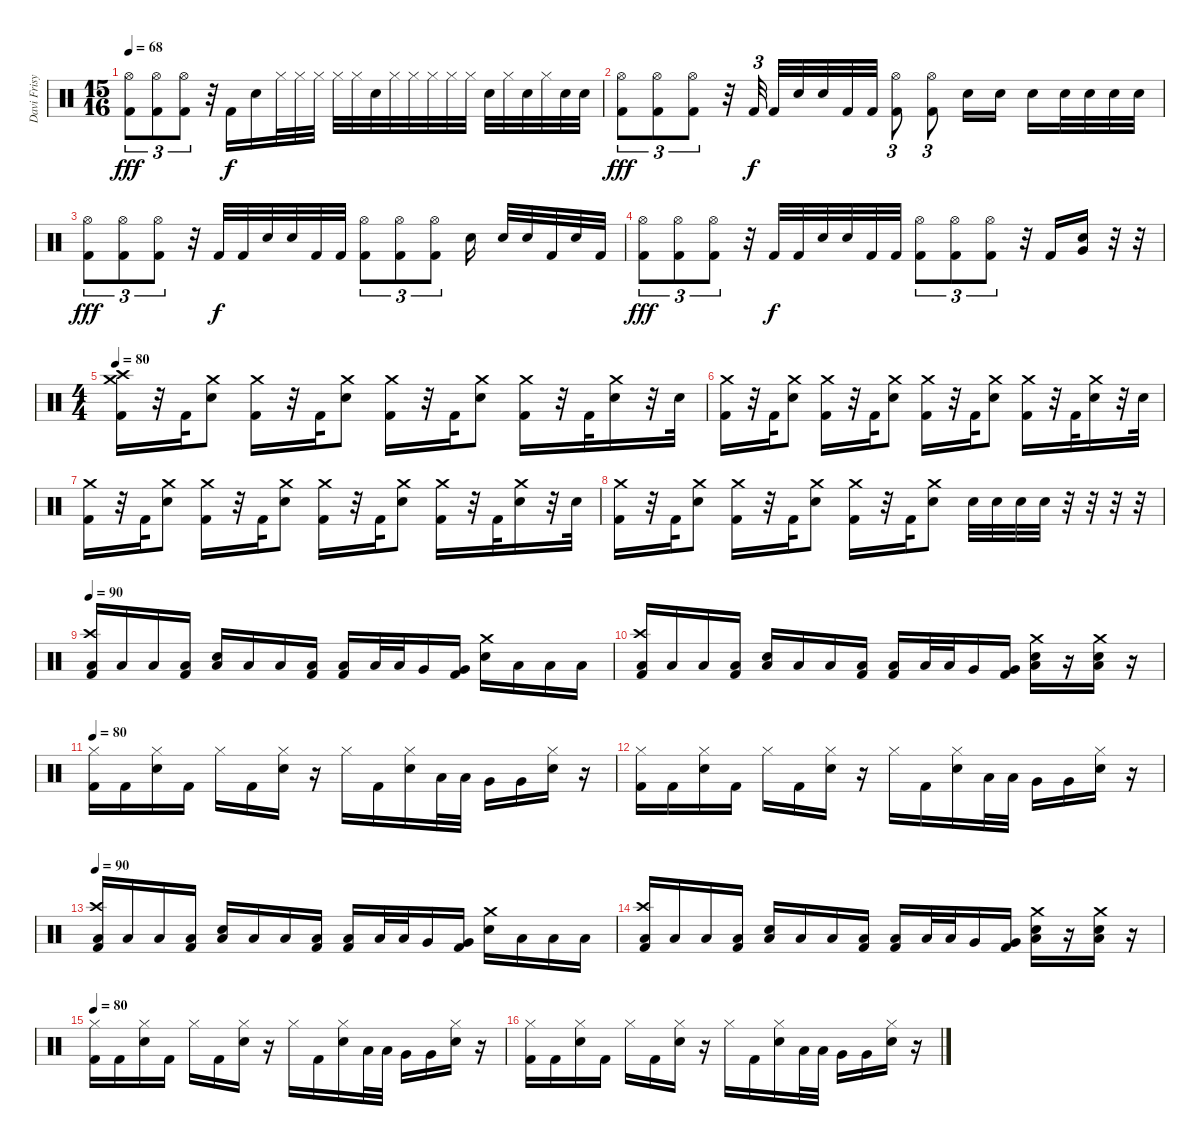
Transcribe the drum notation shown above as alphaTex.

\track ("Davi Frisya" "Davi Frisy") {instrument percussion}
\staff {score}
\articulation defaults
\ts (15 16)
\tempo 68
\clef neutral
\ks c
("Hi-Hat (open)" "Kick (hit) 2").8{tu (3 2) dy fff} ("Hi-Hat (open)" "Kick (hit) 2").8{tu (3 2)} ("Hi-Hat (open)" "Kick (hit) 2").8{tu (3 2)} r.32 "Kick (hit) 2".16{dy f} "Electric Snare (hit)".16 "Hi-Hat (closed)".32 "Hi-Hat (closed)".32 "Hi-Hat (closed)".32 "Hi-Hat (closed)".32 "Hi-Hat (closed)".32 "Electric Snare (hit)".32 "Hi-Hat (closed)".32 "Hi-Hat (closed)".32 "Hi-Hat (closed)".32 "Hi-Hat (closed)".32 "Hi-Hat (closed)".32 "Electric Snare (hit)".32 "Hi-Hat (closed)".32 "Electric Snare (hit)".32 "Hi-Hat (closed)".32 "Electric Snare (hit)".32 "Electric Snare (hit)".32 |
("Hi-Hat (open)" "Kick (hit) 2").8{tu (3 2) dy fff} ("Hi-Hat (open)" "Kick (hit) 2").8{tu (3 2)} ("Hi-Hat (open)" "Kick (hit) 2").8{tu (3 2)} r.32 "Kick (hit) 2".32{tu (3 2) dy f beam splitsecondary} "Kick (hit) 2".32 "Electric Snare (hit)".32 "Electric Snare (hit)".32 "Kick (hit) 2".32 "Kick (hit) 2".32 ("Hi-Hat (open)" "Kick (hit) 2").8{tu (3 2)} ("Hi-Hat (open)" "Kick (hit) 2").8{tu (3 2)} "Electric Snare (hit)".16 "Electric Snare (hit)".16 "Electric Snare (hit)".16 "Electric Snare (hit)".32 "Electric Snare (hit)".32 "Electric Snare (hit)".32 "Electric Snare (hit)".32 |
("Hi-Hat (open)" "Kick (hit) 2").8{tu (3 2) dy fff} ("Hi-Hat (open)" "Kick (hit) 2").8{tu (3 2)} ("Hi-Hat (open)" "Kick (hit) 2").8{tu (3 2)} r.32 "Kick (hit) 2".32{dy f} "Kick (hit) 2".32 "Electric Snare (hit)".32 "Electric Snare (hit)".32 "Kick (hit) 2".32 "Kick (hit) 2".32 ("Hi-Hat (open)" "Kick (hit) 2").8{tu (3 2)} ("Hi-Hat (open)" "Kick (hit) 2").8{tu (3 2)} ("Hi-Hat (open)" "Kick (hit) 2").8{tu (3 2)} "Electric Snare (hit)".16 "Electric Snare (hit)".32 "Electric Snare (hit)".32 "Kick (hit) 2".32 "Electric Snare (hit)".32 "Kick (hit) 2".32 |
("Hi-Hat (open)" "Kick (hit) 2").8{tu (3 2) dy fff} ("Hi-Hat (open)" "Kick (hit) 2").8{tu (3 2)} ("Hi-Hat (open)" "Kick (hit) 2").8{tu (3 2)} r.32 "Kick (hit) 2".32{dy f} "Kick (hit) 2".32 "Electric Snare (hit)".32 "Electric Snare (hit)".32 "Kick (hit) 2".32 "Kick (hit) 2".32 ("Hi-Hat (open)" "Kick (hit) 2").8{tu (3 2)} ("Hi-Hat (open)" "Kick (hit) 2").8{tu (3 2)} ("Hi-Hat (open)" "Kick (hit) 2").8{tu (3 2)} r.32 "Kick (hit) 2".16 ("Electric Snare (hit)" "Very Low Tom (hit)").16 r.32 r.32 |
\ts (4 4)
\tempo 80
("Crash medium (hit)" "Crash high (hit)" "Kick (hit) 2").16 r.32 "Kick (hit) 2".32 ("Crash medium (hit)" "Electric Snare (hit)").8 ("Crash medium (hit)" "Kick (hit) 2").16 r.32 "Kick (hit) 2".32 ("Crash medium (hit)" "Electric Snare (hit)").8 ("Crash medium (hit)" "Kick (hit) 2").16 r.32 "Kick (hit) 2".32 ("Crash medium (hit)" "Electric Snare (hit)").8 ("Crash medium (hit)" "Kick (hit) 2").16 r.32 "Kick (hit) 2".32 ("Crash medium (hit)" "Electric Snare (hit)").16 r.32 "Electric Snare (hit)".32 |
("Crash medium (hit)" "Kick (hit) 2").16 r.32 "Kick (hit) 2".32 ("Crash medium (hit)" "Electric Snare (hit)").8 ("Crash medium (hit)" "Kick (hit) 2").16 r.32 "Kick (hit) 2".32 ("Crash medium (hit)" "Electric Snare (hit)").8 ("Crash medium (hit)" "Kick (hit) 2").16 r.32 "Kick (hit) 2".32 ("Crash medium (hit)" "Electric Snare (hit)").8 ("Crash medium (hit)" "Kick (hit) 2").16 r.32 "Kick (hit) 2".32 ("Crash medium (hit)" "Electric Snare (hit)").16 r.32 "Electric Snare (hit)".32 |
("Crash medium (hit)" "Kick (hit) 2").16 r.32 "Kick (hit) 2".32 ("Crash medium (hit)" "Electric Snare (hit)").8 ("Crash medium (hit)" "Kick (hit) 2").16 r.32 "Kick (hit) 2".32 ("Crash medium (hit)" "Electric Snare (hit)").8 ("Crash medium (hit)" "Kick (hit) 2").16 r.32 "Kick (hit) 2".32 ("Crash medium (hit)" "Electric Snare (hit)").8 ("Crash medium (hit)" "Kick (hit) 2").16 r.32 "Kick (hit) 2".32 ("Crash medium (hit)" "Electric Snare (hit)").16 r.32 "Electric Snare (hit)".32 |
("Crash medium (hit)" "Kick (hit) 2").16 r.32 "Kick (hit) 2".32 ("Crash medium (hit)" "Electric Snare (hit)").8 ("Crash medium (hit)" "Kick (hit) 2").16 r.32 "Kick (hit) 2".32 ("Crash medium (hit)" "Electric Snare (hit)").8 ("Crash medium (hit)" "Kick (hit) 2").16 r.32 "Kick (hit) 2".32 ("Crash medium (hit)" "Electric Snare (hit)").8 "Electric Snare (hit)".32 "Electric Snare (hit)".32 "Electric Snare (hit)".32 "Electric Snare (hit)".32 r.32 r.32 r.32 r.32 |
\tempo 90
("Crash high (hit)" "Low Floor Tom (hit)" "Kick (hit) 2").16 "Low Floor Tom (hit)".16 "Low Floor Tom (hit)".16 ("Low Floor Tom (hit)" "Kick (hit) 2").16 ("Low Floor Tom (hit)" "Electric Snare (hit)").16 "Low Floor Tom (hit)".16 "Low Floor Tom (hit)".16 ("Low Floor Tom (hit)" "Kick (hit) 2").16 ("Low Floor Tom (hit)" "Kick (hit) 2").16 "Low Tom (hit)".32 "Low Tom (hit)".32 "Very Low Tom (hit)".16 ("Very Low Tom (hit)" "Kick (hit) 2").16 ("Crash medium (hit)" "Electric Snare (hit)").16 "Low Floor Tom (hit)".16 "Low Floor Tom (hit)".16 "Low Floor Tom (hit)".16 |
("Crash high (hit)" "Low Floor Tom (hit)" "Kick (hit) 2").16 "Low Floor Tom (hit)".16 "Low Floor Tom (hit)".16 ("Low Floor Tom (hit)" "Kick (hit) 2").16 ("Low Floor Tom (hit)" "Electric Snare (hit)").16 "Low Floor Tom (hit)".16 "Low Floor Tom (hit)".16 ("Low Floor Tom (hit)" "Kick (hit) 2").16 ("Low Floor Tom (hit)" "Kick (hit) 2").16 "Low Tom (hit)".32 "Low Tom (hit)".32 "Very Low Tom (hit)".16 ("Very Low Tom (hit)" "Kick (hit) 2").16 ("Crash medium (hit)" "Low Floor Tom (hit)" "Electric Snare (hit)").16 r.16 ("Crash medium (hit)" "Low Floor Tom (hit)" "Electric Snare (hit)").16 r.16 |
\tempo 80
("Hi-Hat (closed)" "Kick (hit) 2").16 "Kick (hit) 2".16 ("Hi-Hat (closed)" "Electric Snare (hit)").16 "Kick (hit) 2".16 "Hi-Hat (closed)".16 "Kick (hit) 2".16 ("Hi-Hat (closed)" "Electric Snare (hit)").16 r.16 "Hi-Hat (closed)".16 "Kick (hit) 2".16 ("Hi-Hat (closed)" "Electric Snare (hit)").16 "Low Tom (hit)".32 "Low Tom (hit)".32 "Very Low Tom (hit)".16 "Very Low Tom (hit)".16 ("Hi-Hat (closed)" "Electric Snare (hit)").16 r.16 |
("Hi-Hat (closed)" "Kick (hit) 2").16 "Kick (hit) 2".16 ("Hi-Hat (closed)" "Electric Snare (hit)").16 "Kick (hit) 2".16 "Hi-Hat (closed)".16 "Kick (hit) 2".16 ("Hi-Hat (closed)" "Electric Snare (hit)").16 r.16 "Hi-Hat (closed)".16 "Kick (hit) 2".16 ("Hi-Hat (closed)" "Electric Snare (hit)").16 "Low Tom (hit)".32 "Low Tom (hit)".32 "Very Low Tom (hit)".16 "Very Low Tom (hit)".16 ("Hi-Hat (closed)" "Electric Snare (hit)").16 r.16 |
\tempo 90
("Crash high (hit)" "Low Floor Tom (hit)" "Kick (hit) 2").16 "Low Floor Tom (hit)".16 "Low Floor Tom (hit)".16 ("Low Floor Tom (hit)" "Kick (hit) 2").16 ("Low Floor Tom (hit)" "Electric Snare (hit)").16 "Low Floor Tom (hit)".16 "Low Floor Tom (hit)".16 ("Low Floor Tom (hit)" "Kick (hit) 2").16 ("Low Floor Tom (hit)" "Kick (hit) 2").16 "Low Tom (hit)".32 "Low Tom (hit)".32 "Very Low Tom (hit)".16 ("Very Low Tom (hit)" "Kick (hit) 2").16 ("Crash medium (hit)" "Electric Snare (hit)").16 "Low Floor Tom (hit)".16 "Low Floor Tom (hit)".16 "Low Floor Tom (hit)".16 |
("Crash high (hit)" "Low Floor Tom (hit)" "Kick (hit) 2").16 "Low Floor Tom (hit)".16 "Low Floor Tom (hit)".16 ("Low Floor Tom (hit)" "Kick (hit) 2").16 ("Low Floor Tom (hit)" "Electric Snare (hit)").16 "Low Floor Tom (hit)".16 "Low Floor Tom (hit)".16 ("Low Floor Tom (hit)" "Kick (hit) 2").16 ("Low Floor Tom (hit)" "Kick (hit) 2").16 "Low Tom (hit)".32 "Low Tom (hit)".32 "Very Low Tom (hit)".16 ("Very Low Tom (hit)" "Kick (hit) 2").16 ("Crash medium (hit)" "Low Floor Tom (hit)" "Electric Snare (hit)").16 r.16 ("Crash medium (hit)" "Low Floor Tom (hit)" "Electric Snare (hit)").16 r.16 |
\tempo 80
("Hi-Hat (closed)" "Kick (hit) 2").16 "Kick (hit) 2".16 ("Hi-Hat (closed)" "Electric Snare (hit)").16 "Kick (hit) 2".16 "Hi-Hat (closed)".16 "Kick (hit) 2".16 ("Hi-Hat (closed)" "Electric Snare (hit)").16 r.16 "Hi-Hat (closed)".16 "Kick (hit) 2".16 ("Hi-Hat (closed)" "Electric Snare (hit)").16 "Low Tom (hit)".32 "Low Tom (hit)".32 "Very Low Tom (hit)".16 "Very Low Tom (hit)".16 ("Hi-Hat (closed)" "Electric Snare (hit)").16 r.16 |
("Hi-Hat (closed)" "Kick (hit) 2").16 "Kick (hit) 2".16 ("Hi-Hat (closed)" "Electric Snare (hit)").16 "Kick (hit) 2".16 "Hi-Hat (closed)".16 "Kick (hit) 2".16 ("Hi-Hat (closed)" "Electric Snare (hit)").16 r.16 "Hi-Hat (closed)".16 "Kick (hit) 2".16 ("Hi-Hat (closed)" "Electric Snare (hit)").16 "Low Tom (hit)".32 "Low Tom (hit)".32 "Very Low Tom (hit)".16 "Very Low Tom (hit)".16 ("Hi-Hat (closed)" "Electric Snare (hit)").16 r.16
